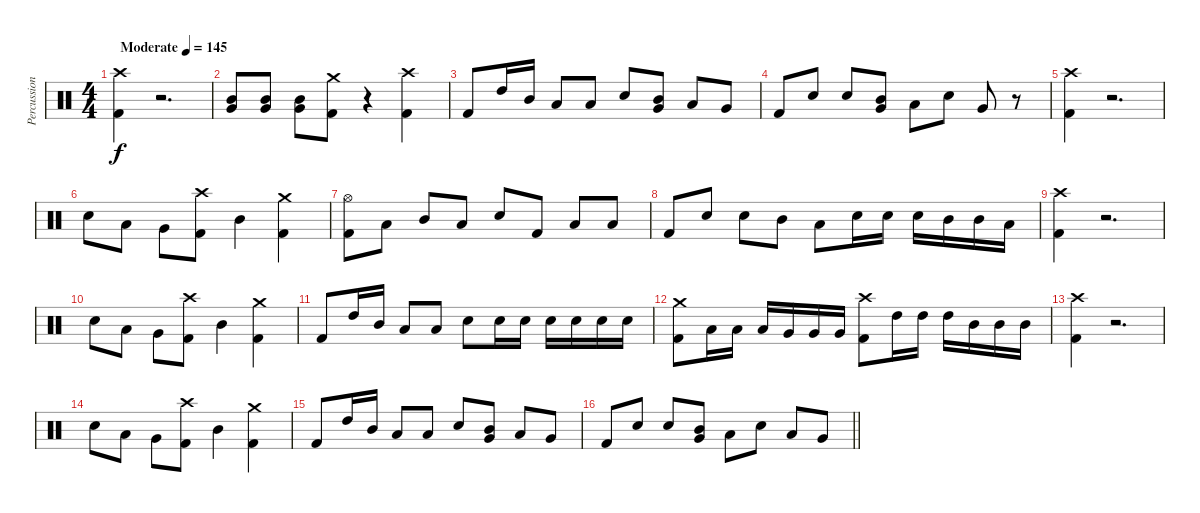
\track ("Percussion" "Percussion") {instrument percussion}
\staff {score}
\articulation defaults
\ts (4 4)
\tempo (145 "Moderate")
\clef neutral
\ks c
("Crash high (hit)" "Kick (hit) 2").4{dy f} r.2{d} |
("Mid Tom (hit)" "Very Low Tom (hit)").8 ("Mid Tom (hit)" "Very Low Tom (hit)").8 ("Mid Tom (hit)" "Very Low Tom (hit)").8 ("Crash medium (hit)" "Kick (hit) 2").8 r.4 ("Crash high (hit)" "Kick (hit) 2").4 |
"Kick (hit) 2".8 "High Tom (hit)".16 "Mid Tom (hit)".16 "Low Tom (hit)".8 "Low Tom (hit)".8 "Electric Snare (hit)".8 ("Mid Tom (hit)" "Very Low Tom (hit)").8 "Low Tom (hit)".8 "Very Low Tom (hit)".8 |
"Kick (hit) 2".8 "Electric Snare (hit)".8 "Electric Snare (hit)".8 ("Mid Tom (hit)" "Very Low Tom (hit)").8 "Low Tom (hit)".8 "Electric Snare (hit)".8 "Very Low Tom (hit)".8 r.8 |
("Crash high (hit)" "Kick (hit) 2").4 r.2{d} |
"Electric Snare (hit)".8 "Low Tom (hit)".8 "Very Low Tom (hit)".8 ("Crash high (hit)" "Kick (hit) 2").8 "Mid Tom (hit)".4 ("Crash medium (hit)" "Kick (hit) 2").4 |
("Hi-Hat (open)" "Kick (hit) 2").8 "Low Tom (hit)".8 "Mid Tom (hit)".8 "Low Tom (hit)".8 "Electric Snare (hit)".8 "Kick (hit) 2".8 "Low Tom (hit)".8 "Low Tom (hit)".8 |
"Kick (hit) 2".8 "Electric Snare (hit)".8 "Electric Snare (hit)".8 "Mid Tom (hit)".8 "Low Tom (hit)".8 "Electric Snare (hit)".16 "Electric Snare (hit)".16 "Electric Snare (hit)".16 "Mid Tom (hit)".16 "Mid Tom (hit)".16 "Low Tom (hit)".16 |
("Crash high (hit)" "Kick (hit) 2").4 r.2{d} |
"Electric Snare (hit)".8 "Low Tom (hit)".8 "Very Low Tom (hit)".8 ("Crash high (hit)" "Kick (hit) 2").8 "Mid Tom (hit)".4 ("Crash medium (hit)" "Kick (hit) 2").4 |
"Kick (hit) 2".8 "High Tom (hit)".16 "Mid Tom (hit)".16 "Low Tom (hit)".8 "Low Tom (hit)".8 "Electric Snare (hit)".8 "Electric Snare (hit)".16 "Electric Snare (hit)".16 "Electric Snare (hit)".16 "Electric Snare (hit)".16 "Electric Snare (hit)".16 "Electric Snare (hit)".16 |
("Crash medium (hit)" "Kick (hit) 2").8 "Low Tom (hit)".16 "Low Tom (hit)".16 "Low Tom (hit)".16 "Very Low Tom (hit)".16 "Very Low Tom (hit)".16 "Very Low Tom (hit)".16 ("Crash high (hit)" "Kick (hit) 2").8 "High Tom (hit)".16 "High Tom (hit)".16 "High Tom (hit)".16 "Mid Tom (hit)".16 "Mid Tom (hit)".16 "Mid Tom (hit)".16 |
("Crash high (hit)" "Kick (hit) 2").4 r.2{d} |
"Electric Snare (hit)".8 "Low Tom (hit)".8 "Very Low Tom (hit)".8 ("Crash high (hit)" "Kick (hit) 2").8 "Mid Tom (hit)".4 ("Crash medium (hit)" "Kick (hit) 2").4 |
"Kick (hit) 2".8 "High Tom (hit)".16 "Mid Tom (hit)".16 "Low Tom (hit)".8 "Low Tom (hit)".8 "Electric Snare (hit)".8 ("Mid Tom (hit)" "Very Low Tom (hit)").8 "Low Tom (hit)".8 "Very Low Tom (hit)".8 |
\barLineRight lightlight "Kick (hit) 2".8 "Electric Snare (hit)".8 "Electric Snare (hit)".8
("Mid Tom (hit)" "Very Low Tom (hit)").8 "Low Tom (hit)".8 "Electric Snare (hit)".8 "Low Tom (hit)".8 "Very Low Tom (hit)".8
